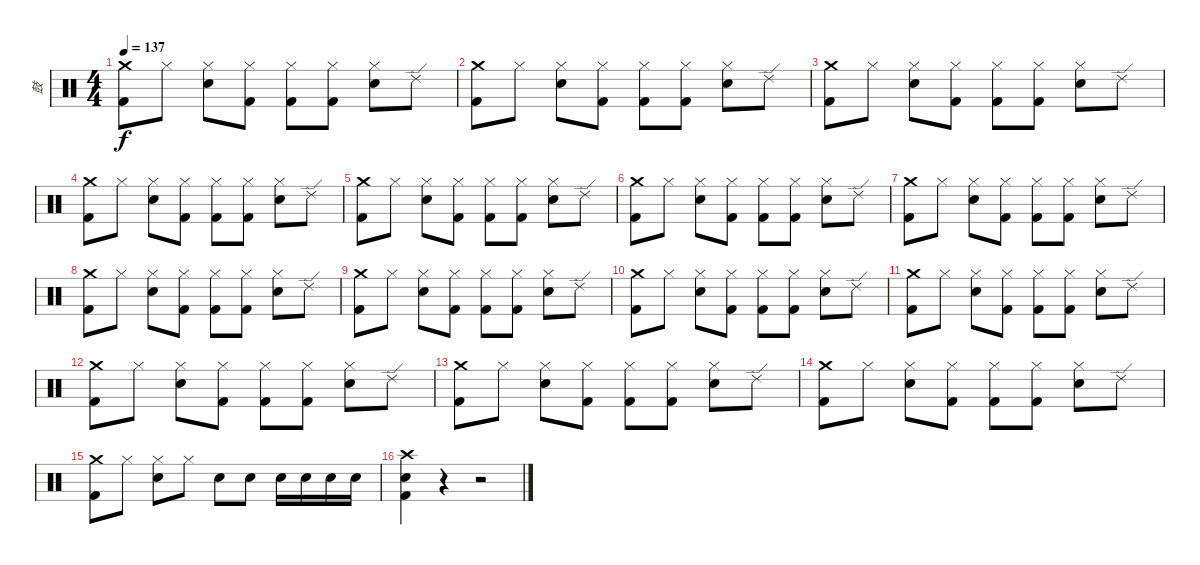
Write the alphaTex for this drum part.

\track ("鼓" "鼓") {instrument percussion}
\staff {score}
\articulation defaults
\ts (4 4)
\tempo 137
\clef neutral
\ks c
("Crash medium (hit)" "Kick (hit) 2").8{dy f} "Hi-Hat (closed)".8 ("Hi-Hat (closed)" "Snare (hit) 2").8 ("Hi-Hat (closed)" "Kick (hit) 2").8 ("Hi-Hat (closed)" "Kick (hit) 2").8 ("Hi-Hat (closed)" "Kick (hit) 2").8 ("Hi-Hat (closed)" "Snare (hit) 2").8 "Ride (edge) 2".8 |
("Crash medium (hit)" "Kick (hit) 2").8 "Hi-Hat (closed)".8 ("Hi-Hat (closed)" "Snare (hit) 2").8 ("Hi-Hat (closed)" "Kick (hit) 2").8 ("Hi-Hat (closed)" "Kick (hit) 2").8 ("Hi-Hat (closed)" "Kick (hit) 2").8 ("Hi-Hat (closed)" "Snare (hit) 2").8 "Ride (edge) 2".8 |
("Crash medium (hit)" "Kick (hit) 2").8 "Hi-Hat (closed)".8 ("Hi-Hat (closed)" "Snare (hit) 2").8 ("Hi-Hat (closed)" "Kick (hit) 2").8 ("Hi-Hat (closed)" "Kick (hit) 2").8 ("Hi-Hat (closed)" "Kick (hit) 2").8 ("Hi-Hat (closed)" "Snare (hit) 2").8 "Ride (edge) 2".8 |
("Crash medium (hit)" "Kick (hit) 2").8 "Hi-Hat (closed)".8 ("Hi-Hat (closed)" "Snare (hit) 2").8 ("Hi-Hat (closed)" "Kick (hit) 2").8 ("Hi-Hat (closed)" "Kick (hit) 2").8 ("Hi-Hat (closed)" "Kick (hit) 2").8 ("Hi-Hat (closed)" "Snare (hit) 2").8 "Ride (edge) 2".8 |
("Crash medium (hit)" "Kick (hit) 2").8 "Hi-Hat (closed)".8 ("Hi-Hat (closed)" "Snare (hit) 2").8 ("Hi-Hat (closed)" "Kick (hit) 2").8 ("Hi-Hat (closed)" "Kick (hit) 2").8 ("Hi-Hat (closed)" "Kick (hit) 2").8 ("Hi-Hat (closed)" "Snare (hit) 2").8 "Ride (edge) 2".8 |
("Crash medium (hit)" "Kick (hit) 2").8 "Hi-Hat (closed)".8 ("Hi-Hat (closed)" "Snare (hit) 2").8 ("Hi-Hat (closed)" "Kick (hit) 2").8 ("Hi-Hat (closed)" "Kick (hit) 2").8 ("Hi-Hat (closed)" "Kick (hit) 2").8 ("Hi-Hat (closed)" "Snare (hit) 2").8 "Ride (edge) 2".8 |
("Crash medium (hit)" "Kick (hit) 2").8 "Hi-Hat (closed)".8 ("Hi-Hat (closed)" "Snare (hit) 2").8 ("Hi-Hat (closed)" "Kick (hit) 2").8 ("Hi-Hat (closed)" "Kick (hit) 2").8 ("Hi-Hat (closed)" "Kick (hit) 2").8 ("Hi-Hat (closed)" "Snare (hit) 2").8 "Ride (edge) 2".8 |
("Crash medium (hit)" "Kick (hit) 2").8 "Hi-Hat (closed)".8 ("Hi-Hat (closed)" "Snare (hit) 2").8 ("Hi-Hat (closed)" "Kick (hit) 2").8 ("Hi-Hat (closed)" "Kick (hit) 2").8 ("Hi-Hat (closed)" "Kick (hit) 2").8 ("Hi-Hat (closed)" "Snare (hit) 2").8 "Ride (edge) 2".8 |
("Crash medium (hit)" "Kick (hit) 2").8 "Hi-Hat (closed)".8 ("Hi-Hat (closed)" "Snare (hit) 2").8 ("Hi-Hat (closed)" "Kick (hit) 2").8 ("Hi-Hat (closed)" "Kick (hit) 2").8 ("Hi-Hat (closed)" "Kick (hit) 2").8 ("Hi-Hat (closed)" "Snare (hit) 2").8 "Ride (edge) 2".8 |
("Crash medium (hit)" "Kick (hit) 2").8 "Hi-Hat (closed)".8 ("Hi-Hat (closed)" "Snare (hit) 2").8 ("Hi-Hat (closed)" "Kick (hit) 2").8 ("Hi-Hat (closed)" "Kick (hit) 2").8 ("Hi-Hat (closed)" "Kick (hit) 2").8 ("Hi-Hat (closed)" "Snare (hit) 2").8 "Ride (edge) 2".8 |
("Crash medium (hit)" "Kick (hit) 2").8 "Hi-Hat (closed)".8 ("Hi-Hat (closed)" "Snare (hit) 2").8 ("Hi-Hat (closed)" "Kick (hit) 2").8 ("Hi-Hat (closed)" "Kick (hit) 2").8 ("Hi-Hat (closed)" "Kick (hit) 2").8 ("Hi-Hat (closed)" "Snare (hit) 2").8 "Ride (edge) 2".8 |
("Crash medium (hit)" "Kick (hit) 2").8 "Hi-Hat (closed)".8 ("Hi-Hat (closed)" "Snare (hit) 2").8 ("Hi-Hat (closed)" "Kick (hit) 2").8 ("Hi-Hat (closed)" "Kick (hit) 2").8 ("Hi-Hat (closed)" "Kick (hit) 2").8 ("Hi-Hat (closed)" "Snare (hit) 2").8 "Ride (edge) 2".8 |
("Crash medium (hit)" "Kick (hit) 2").8 "Hi-Hat (closed)".8 ("Hi-Hat (closed)" "Snare (hit) 2").8 ("Hi-Hat (closed)" "Kick (hit) 2").8 ("Hi-Hat (closed)" "Kick (hit) 2").8 ("Hi-Hat (closed)" "Kick (hit) 2").8 ("Hi-Hat (closed)" "Snare (hit) 2").8 "Ride (edge) 2".8 |
("Crash medium (hit)" "Kick (hit) 2").8 "Hi-Hat (closed)".8 ("Hi-Hat (closed)" "Snare (hit) 2").8 ("Hi-Hat (closed)" "Kick (hit) 2").8 ("Hi-Hat (closed)" "Kick (hit) 2").8 ("Hi-Hat (closed)" "Kick (hit) 2").8 ("Hi-Hat (closed)" "Snare (hit) 2").8 "Ride (edge) 2".8 |
("Crash medium (hit)" "Kick (hit) 2").8 "Hi-Hat (closed)".8 ("Hi-Hat (closed)" "Snare (hit) 2").8 "Hi-Hat (closed)".8 "Snare (hit) 2".8 "Snare (hit) 2".8 "Snare (hit) 2".16 "Snare (hit) 2".16 "Snare (hit) 2".16 "Snare (hit) 2".16 |
("Crash high (hit)" "Snare (hit) 2" "Kick (hit) 2").4 r.4 r.2
